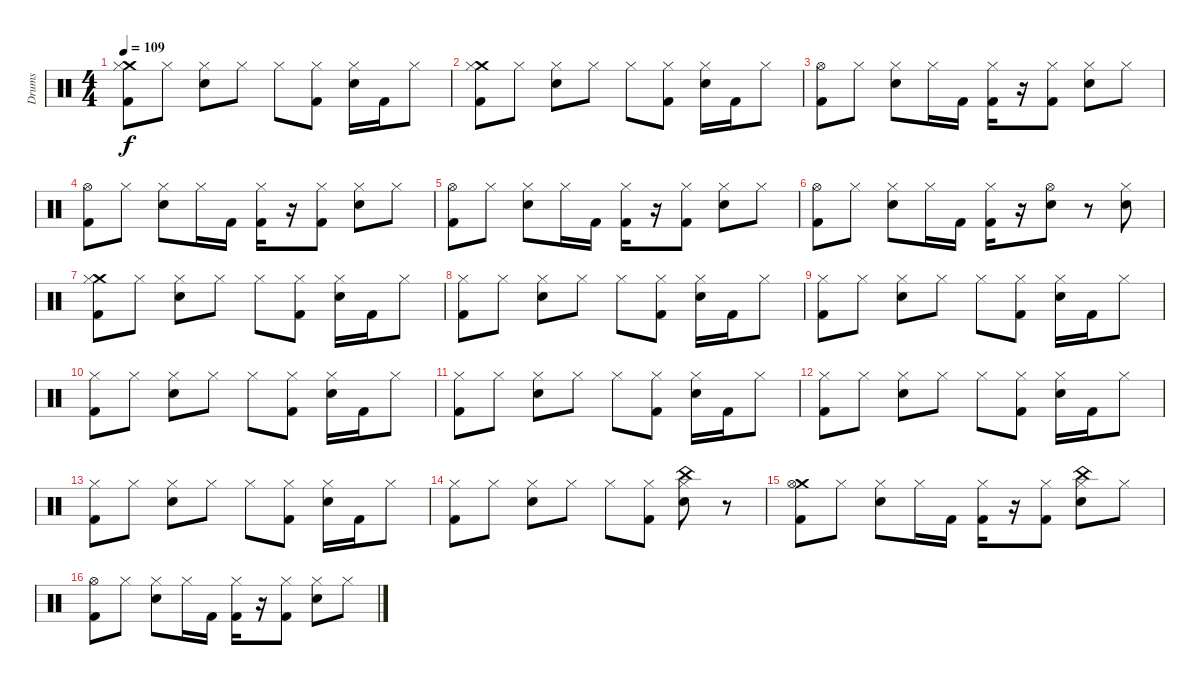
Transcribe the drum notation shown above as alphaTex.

\track ("Drums" "Drums") {instrument percussion}
\staff {score}
\articulation defaults
\ts (4 4)
\tempo 109
\clef neutral
\ks c
("Crash medium (hit)" "Hi-Hat (closed)" "Kick (hit) 2").8{dy f} "Hi-Hat (closed)".8 ("Hi-Hat (closed)" "Snare (hit) 2").8 "Hi-Hat (closed)".8 "Hi-Hat (closed)".8 ("Hi-Hat (closed)" "Kick (hit) 2").8 ("Hi-Hat (closed)" "Snare (hit) 2").16 "Kick (hit) 2".16 "Hi-Hat (closed)".8 |
("Crash medium (hit)" "Hi-Hat (closed)" "Kick (hit) 2").8 "Hi-Hat (closed)".8 ("Hi-Hat (closed)" "Snare (hit) 2").8 "Hi-Hat (closed)".8 "Hi-Hat (closed)".8 ("Hi-Hat (closed)" "Kick (hit) 2").8 ("Hi-Hat (closed)" "Snare (hit) 2").16 "Kick (hit) 2".16 "Hi-Hat (closed)".8 |
("Hi-Hat (open)" "Kick (hit) 2").8 "Hi-Hat (closed)".8 ("Hi-Hat (closed)" "Snare (hit) 2").8 "Hi-Hat (closed)".16 "Kick (hit) 2".16 ("Hi-Hat (closed)" "Kick (hit) 2").16 r.16 ("Hi-Hat (closed)" "Kick (hit) 2").8 ("Hi-Hat (closed)" "Snare (hit) 2").8 "Hi-Hat (closed)".8 |
("Hi-Hat (open)" "Kick (hit) 2").8 "Hi-Hat (closed)".8 ("Hi-Hat (closed)" "Snare (hit) 2").8 "Hi-Hat (closed)".16 "Kick (hit) 2".16 ("Hi-Hat (closed)" "Kick (hit) 2").16 r.16 ("Hi-Hat (closed)" "Kick (hit) 2").8 ("Hi-Hat (closed)" "Snare (hit) 2").8 "Hi-Hat (closed)".8 |
("Hi-Hat (open)" "Kick (hit) 2").8 "Hi-Hat (closed)".8 ("Hi-Hat (closed)" "Snare (hit) 2").8 "Hi-Hat (closed)".16 "Kick (hit) 2".16 ("Hi-Hat (closed)" "Kick (hit) 2").16 r.16 ("Hi-Hat (closed)" "Kick (hit) 2").8 ("Hi-Hat (closed)" "Snare (hit) 2").8 "Hi-Hat (closed)".8 |
("Hi-Hat (open)" "Kick (hit) 2").8 "Hi-Hat (closed)".8 ("Hi-Hat (closed)" "Snare (hit) 2").8 "Hi-Hat (closed)".16 "Kick (hit) 2".16 ("Hi-Hat (closed)" "Kick (hit) 2").16 r.16 ("Hi-Hat (open)" "Snare (hit) 2").8 r.8 ("Snare (hit) 2" "Hi-Hat (closed)").8 |
("Crash medium (hit)" "Hi-Hat (closed)" "Kick (hit) 2").8 "Hi-Hat (closed)".8 ("Hi-Hat (closed)" "Snare (hit) 2").8 "Hi-Hat (closed)".8 "Hi-Hat (closed)".8 ("Hi-Hat (closed)" "Kick (hit) 2").8 ("Hi-Hat (closed)" "Snare (hit) 2").16 "Kick (hit) 2".16 "Hi-Hat (closed)".8 |
("Hi-Hat (closed)" "Kick (hit) 2").8 "Hi-Hat (closed)".8 ("Hi-Hat (closed)" "Snare (hit) 2").8 "Hi-Hat (closed)".8 "Hi-Hat (closed)".8 ("Hi-Hat (closed)" "Kick (hit) 2").8 ("Hi-Hat (closed)" "Snare (hit) 2").16 "Kick (hit) 2".16 "Hi-Hat (closed)".8 |
("Hi-Hat (closed)" "Kick (hit) 2").8 "Hi-Hat (closed)".8 ("Hi-Hat (closed)" "Snare (hit) 2").8 "Hi-Hat (closed)".8 "Hi-Hat (closed)".8 ("Hi-Hat (closed)" "Kick (hit) 2").8 ("Hi-Hat (closed)" "Snare (hit) 2").16 "Kick (hit) 2".16 "Hi-Hat (closed)".8 |
("Hi-Hat (closed)" "Kick (hit) 2").8 "Hi-Hat (closed)".8 ("Hi-Hat (closed)" "Snare (hit) 2").8 "Hi-Hat (closed)".8 "Hi-Hat (closed)".8 ("Hi-Hat (closed)" "Kick (hit) 2").8 ("Hi-Hat (closed)" "Snare (hit) 2").16 "Kick (hit) 2".16 "Hi-Hat (closed)".8 |
("Hi-Hat (closed)" "Kick (hit) 2").8 "Hi-Hat (closed)".8 ("Hi-Hat (closed)" "Snare (hit) 2").8 "Hi-Hat (closed)".8 "Hi-Hat (closed)".8 ("Hi-Hat (closed)" "Kick (hit) 2").8 ("Hi-Hat (closed)" "Snare (hit) 2").16 "Kick (hit) 2".16 "Hi-Hat (closed)".8 |
("Hi-Hat (closed)" "Kick (hit) 2").8 "Hi-Hat (closed)".8 ("Hi-Hat (closed)" "Snare (hit) 2").8 "Hi-Hat (closed)".8 "Hi-Hat (closed)".8 ("Hi-Hat (closed)" "Kick (hit) 2").8 ("Hi-Hat (closed)" "Snare (hit) 2").16 "Kick (hit) 2".16 "Hi-Hat (closed)".8 |
("Hi-Hat (closed)" "Kick (hit) 2").8 "Hi-Hat (closed)".8 ("Hi-Hat (closed)" "Snare (hit) 2").8 "Hi-Hat (closed)".8 "Hi-Hat (closed)".8 ("Hi-Hat (closed)" "Kick (hit) 2").8 ("Hi-Hat (closed)" "Snare (hit) 2").16 "Kick (hit) 2".16 "Hi-Hat (closed)".8 |
("Hi-Hat (closed)" "Kick (hit) 2").8 "Hi-Hat (closed)".8 ("Hi-Hat (closed)" "Snare (hit) 2").8 "Hi-Hat (closed)".8 "Hi-Hat (closed)".8 ("Hi-Hat (closed)" "Kick (hit) 2").8 ("China (hit)" "Hi-Hat (closed)" "Snare (hit) 2").8 r.8 |
("Crash medium (hit)" "Hi-Hat (open)" "Kick (hit) 2").8 "Hi-Hat (closed)".8 ("Hi-Hat (closed)" "Snare (hit) 2").8 "Hi-Hat (closed)".16 "Kick (hit) 2".16 ("Hi-Hat (closed)" "Kick (hit) 2").16 r.16 ("Hi-Hat (closed)" "Kick (hit) 2").8 ("China (hit)" "Hi-Hat (closed)" "Snare (hit) 2").8 "Hi-Hat (closed)".8 |
("Hi-Hat (open)" "Kick (hit) 2").8 "Hi-Hat (closed)".8 ("Hi-Hat (closed)" "Snare (hit) 2").8 "Hi-Hat (closed)".16 "Kick (hit) 2".16 ("Hi-Hat (closed)" "Kick (hit) 2").16 r.16 ("Hi-Hat (closed)" "Kick (hit) 2").8 ("Hi-Hat (closed)" "Snare (hit) 2").8 "Hi-Hat (closed)".8
